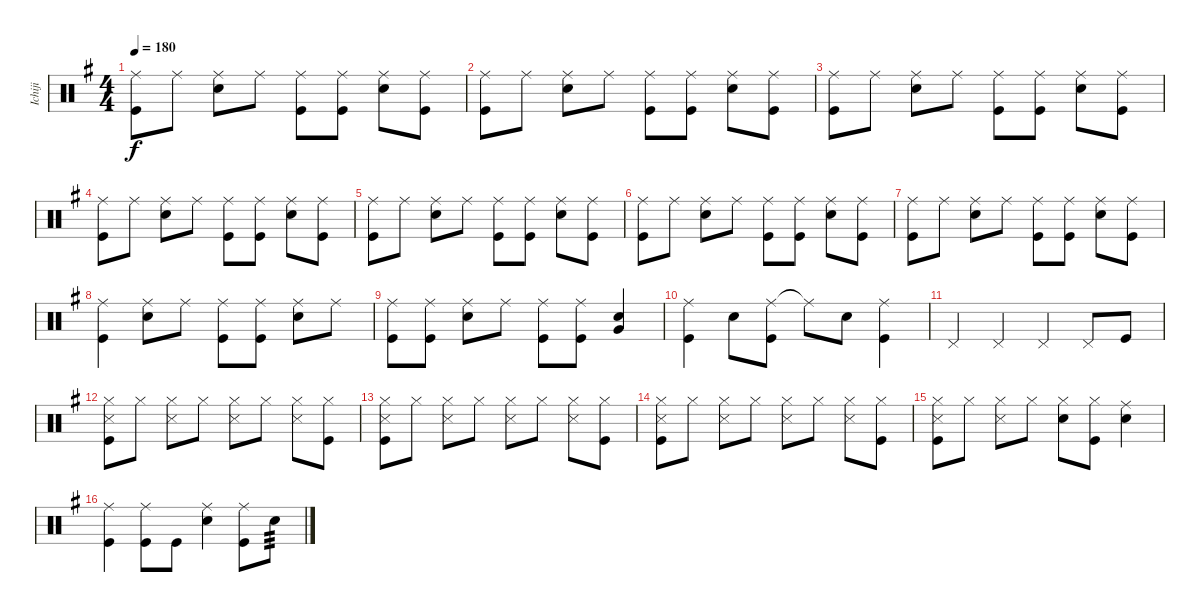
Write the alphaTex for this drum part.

\track ("Ichiji" "Ichiji") {instrument percussion}
\staff {score}
\articulation defaults
\ts (4 4)
\tempo 180
\clef neutral
\ks g
("Ride (middle)" "Kick (hit)").8{dy f} "Ride (middle)".8 ("Ride (middle)" "Snare (hit) 2").8 "Ride (middle)".8 ("Ride (middle)" "Kick (hit)").8 ("Ride (middle)" "Kick (hit)").8 ("Ride (middle)" "Snare (hit) 2").8 ("Ride (middle)" "Kick (hit)").8 |
("Ride (middle)" "Kick (hit)").8 "Ride (middle)".8 ("Ride (middle)" "Snare (hit) 2").8 "Ride (middle)".8 ("Ride (middle)" "Kick (hit)").8 ("Ride (middle)" "Kick (hit)").8 ("Ride (middle)" "Snare (hit) 2").8 ("Ride (middle)" "Kick (hit)").8 |
("Ride (middle)" "Kick (hit)").8 "Ride (middle)".8 ("Ride (middle)" "Snare (hit) 2").8 "Ride (middle)".8 ("Ride (middle)" "Kick (hit)").8 ("Ride (middle)" "Kick (hit)").8 ("Ride (middle)" "Snare (hit) 2").8 ("Ride (middle)" "Kick (hit)").8 |
("Ride (middle)" "Kick (hit)").8 "Ride (middle)".8 ("Ride (middle)" "Snare (hit) 2").8 "Ride (middle)".8 ("Ride (middle)" "Kick (hit)").8 ("Ride (middle)" "Kick (hit)").8 ("Ride (middle)" "Snare (hit) 2").8 ("Ride (middle)" "Kick (hit)").8 |
("Ride (middle)" "Kick (hit)").8 "Ride (middle)".8 ("Ride (middle)" "Snare (hit) 2").8 "Ride (middle)".8 ("Ride (middle)" "Kick (hit)").8 ("Ride (middle)" "Kick (hit)").8 ("Ride (middle)" "Snare (hit) 2").8 ("Ride (middle)" "Kick (hit)").8 |
("Ride (middle)" "Kick (hit)").8 "Ride (middle)".8 ("Ride (middle)" "Snare (hit) 2").8 "Ride (middle)".8 ("Ride (middle)" "Kick (hit)").8 ("Ride (middle)" "Kick (hit)").8 ("Ride (middle)" "Snare (hit) 2").8 ("Ride (middle)" "Kick (hit)").8 |
("Ride (middle)" "Kick (hit)").8 "Ride (middle)".8 ("Ride (middle)" "Snare (hit) 2").8 "Ride (middle)".8 ("Ride (middle)" "Kick (hit)").8 ("Ride (middle)" "Kick (hit)").8 ("Ride (middle)" "Snare (hit) 2").8 ("Ride (middle)" "Kick (hit)").8 |
("Ride (middle)" "Kick (hit)").4 ("Ride (middle)" "Snare (hit) 2").8 "Ride (middle)".8 ("Ride (middle)" "Kick (hit)").8 ("Ride (middle)" "Kick (hit)").8 ("Ride (middle)" "Snare (hit) 2").8 "Ride (middle)".8 |
("Kick (hit)" "Ride (middle)").8 ("Kick (hit)" "Ride (middle)").8 ("Snare (hit) 2" "Ride (middle)").8 "Ride (middle)".8 ("Kick (hit)" "Ride (middle)").8 ("Kick (hit)" "Ride (middle)").8 ("Snare (hit) 2" "Very Low Tom (hit)").4 |
("Ride (middle)" "Kick (hit)").4 "Snare (hit) 2".8 ("Ride (middle)" "Kick (hit)").8 "Ride (middle)"{t}.8 "Snare (hit) 2".8 ("Ride (middle)" "Kick (hit)").4 |
"Pedal Hi-Hat (hit)".4 "Pedal Hi-Hat (hit)".4 "Pedal Hi-Hat (hit)".4 "Pedal Hi-Hat (hit)".8 "Kick (hit)".8 |
("Hi-Hat (closed)" "Snare (side stick) 3" "Kick (hit)").8 "Hi-Hat (closed)".8 ("Hi-Hat (closed)" "Snare (side stick) 3").8 "Hi-Hat (closed)".8 ("Hi-Hat (closed)" "Snare (side stick) 3").8 "Hi-Hat (closed)".8 ("Hi-Hat (closed)" "Snare (side stick) 3").8 ("Hi-Hat (closed)" "Kick (hit)").8 |
("Hi-Hat (closed)" "Snare (side stick) 3" "Kick (hit)").8 "Hi-Hat (closed)".8 ("Hi-Hat (closed)" "Snare (side stick) 3").8 "Hi-Hat (closed)".8 ("Hi-Hat (closed)" "Snare (side stick) 3").8 "Hi-Hat (closed)".8 ("Hi-Hat (closed)" "Snare (side stick) 3").8 ("Hi-Hat (closed)" "Kick (hit)").8 |
("Hi-Hat (closed)" "Snare (side stick) 3" "Kick (hit)").8 "Hi-Hat (closed)".8 ("Hi-Hat (closed)" "Snare (side stick) 3").8 "Hi-Hat (closed)".8 ("Hi-Hat (closed)" "Snare (side stick) 3").8 "Hi-Hat (closed)".8 ("Hi-Hat (closed)" "Snare (side stick) 3").8 ("Hi-Hat (closed)" "Kick (hit)").8 |
("Hi-Hat (closed)" "Snare (side stick) 3" "Kick (hit)").8 "Hi-Hat (closed)".8 ("Hi-Hat (closed)" "Snare (side stick) 3").8 "Hi-Hat (closed)".8 ("Hi-Hat (closed)" "Snare (hit) 2").8 ("Hi-Hat (closed)" "Kick (hit)").8 ("Ride (middle)" "Snare (hit) 2").4 |
("Ride (middle)" "Kick (hit)").4 ("Ride (middle)" "Kick (hit)").8 "Kick (hit)".8 ("Ride (middle)" "Snare (hit) 2").4 ("Ride (middle)" "Kick (hit)").8 "Snare (hit) 2".8{tp 3}
